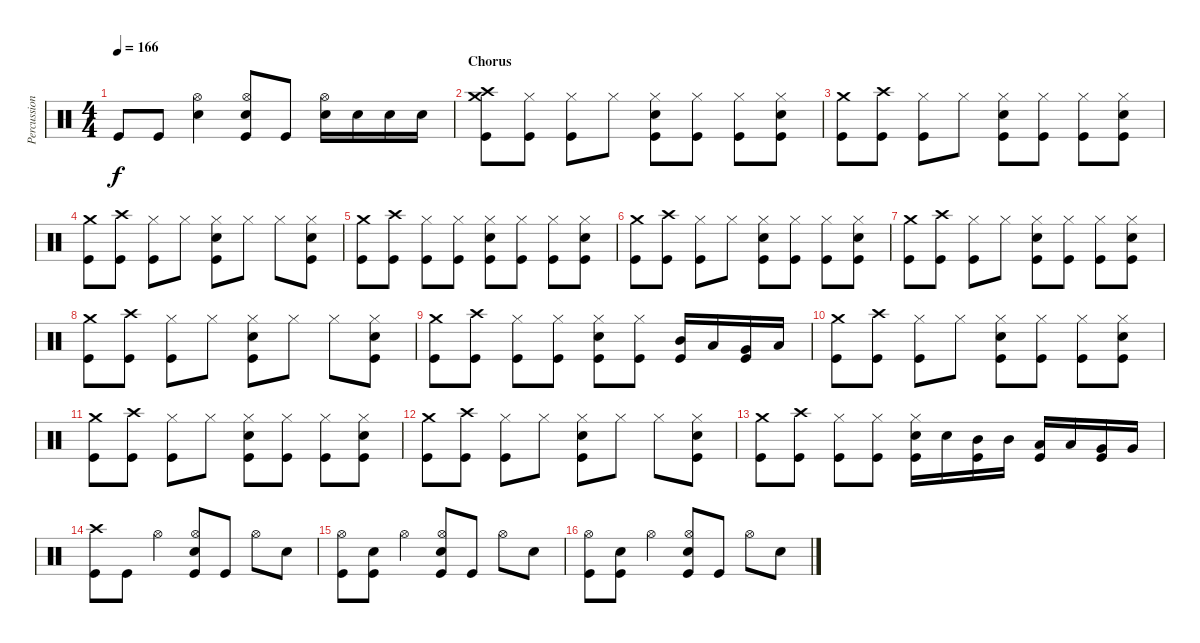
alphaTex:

\track ("Percussion" "Percussion") {instrument percussion}
\staff {score}
\articulation defaults
\ts (4 4)
\tempo 166
\clef neutral
\ks c "Kick (hit)".8{dy f} "Kick (hit)".8
("Hi-Hat (open)" "Electric Snare (hit)").4 ("Hi-Hat (open)" "Electric Snare (hit)" "Kick (hit)").8 "Kick (hit)".8 ("Hi-Hat (open)" "Electric Snare (hit)").16 "Electric Snare (hit)".16 "Electric Snare (hit)".16 "Electric Snare (hit)".16 |
\section ("" "Chorus")
("Crash high (hit)" "Crash medium (hit)" "Kick (hit)").8 ("Hi-Hat (closed)" "Kick (hit)").8 ("Hi-Hat (closed)" "Kick (hit)").8 "Hi-Hat (closed)".8 ("Hi-Hat (closed)" "Electric Snare (hit)" "Kick (hit)").8 ("Hi-Hat (closed)" "Kick (hit)").8 ("Hi-Hat (closed)" "Kick (hit)").8 ("Hi-Hat (closed)" "Electric Snare (hit)" "Kick (hit)").8 |
("Crash medium (hit)" "Kick (hit)").8 ("Crash high (hit)" "Kick (hit)").8 ("Hi-Hat (closed)" "Kick (hit)").8 "Hi-Hat (closed)".8 ("Hi-Hat (closed)" "Electric Snare (hit)" "Kick (hit)").8 ("Hi-Hat (closed)" "Kick (hit)").8 ("Hi-Hat (closed)" "Kick (hit)").8 ("Hi-Hat (closed)" "Electric Snare (hit)" "Kick (hit)").8 |
("Crash medium (hit)" "Kick (hit)").8 ("Crash high (hit)" "Kick (hit)").8 ("Hi-Hat (closed)" "Kick (hit)").8 "Hi-Hat (closed)".8 ("Hi-Hat (closed)" "Electric Snare (hit)" "Kick (hit)").8 "Hi-Hat (closed)".8 "Hi-Hat (closed)".8 ("Hi-Hat (closed)" "Electric Snare (hit)" "Kick (hit)").8 |
("Crash medium (hit)" "Kick (hit)").8 ("Crash high (hit)" "Kick (hit)").8 ("Hi-Hat (closed)" "Kick (hit)").8 ("Hi-Hat (closed)" "Kick (hit)").8 ("Hi-Hat (closed)" "Electric Snare (hit)" "Kick (hit)").8 ("Hi-Hat (closed)" "Kick (hit)").8 ("Hi-Hat (closed)" "Kick (hit)").8 ("Hi-Hat (closed)" "Electric Snare (hit)" "Kick (hit)").8 |
("Crash medium (hit)" "Kick (hit)").8 ("Crash high (hit)" "Kick (hit)").8 ("Hi-Hat (closed)" "Kick (hit)").8 "Hi-Hat (closed)".8 ("Hi-Hat (closed)" "Electric Snare (hit)" "Kick (hit)").8 ("Hi-Hat (closed)" "Kick (hit)").8 ("Hi-Hat (closed)" "Kick (hit)").8 ("Hi-Hat (closed)" "Electric Snare (hit)" "Kick (hit)").8 |
("Crash medium (hit)" "Kick (hit)").8 ("Crash high (hit)" "Kick (hit)").8 ("Hi-Hat (closed)" "Kick (hit)").8 "Hi-Hat (closed)".8 ("Hi-Hat (closed)" "Electric Snare (hit)" "Kick (hit)").8 ("Hi-Hat (closed)" "Kick (hit)").8 ("Hi-Hat (closed)" "Kick (hit)").8 ("Hi-Hat (closed)" "Electric Snare (hit)" "Kick (hit)").8 |
("Crash medium (hit)" "Kick (hit)").8 ("Crash high (hit)" "Kick (hit)").8 ("Hi-Hat (closed)" "Kick (hit)").8 "Hi-Hat (closed)".8 ("Hi-Hat (closed)" "Electric Snare (hit)" "Kick (hit)").8 "Hi-Hat (closed)".8 "Hi-Hat (closed)".8 ("Hi-Hat (closed)" "Electric Snare (hit)" "Kick (hit)").8 |
("Crash medium (hit)" "Kick (hit)").8 ("Crash high (hit)" "Kick (hit)").8 ("Hi-Hat (closed)" "Kick (hit)").8 ("Hi-Hat (closed)" "Kick (hit)").8 ("Hi-Hat (closed)" "Electric Snare (hit)" "Kick (hit)").8 ("Hi-Hat (closed)" "Kick (hit)").8 ("Mid Tom (hit)" "Kick (hit)").16 "Low Tom (hit)".16 ("Very Low Tom (hit)" "Kick (hit)").16 "Low Floor Tom (hit)".16 |
("Crash medium (hit)" "Kick (hit)").8 ("Crash high (hit)" "Kick (hit)").8 ("Hi-Hat (closed)" "Kick (hit)").8 "Hi-Hat (closed)".8 ("Hi-Hat (closed)" "Electric Snare (hit)" "Kick (hit)").8 ("Hi-Hat (closed)" "Kick (hit)").8 ("Hi-Hat (closed)" "Kick (hit)").8 ("Hi-Hat (closed)" "Electric Snare (hit)" "Kick (hit)").8 |
("Crash medium (hit)" "Kick (hit)").8 ("Crash high (hit)" "Kick (hit)").8 ("Hi-Hat (closed)" "Kick (hit)").8 "Hi-Hat (closed)".8 ("Hi-Hat (closed)" "Electric Snare (hit)" "Kick (hit)").8 ("Hi-Hat (closed)" "Kick (hit)").8 ("Hi-Hat (closed)" "Kick (hit)").8 ("Hi-Hat (closed)" "Electric Snare (hit)" "Kick (hit)").8 |
("Crash medium (hit)" "Kick (hit)").8 ("Crash high (hit)" "Kick (hit)").8 ("Hi-Hat (closed)" "Kick (hit)").8 "Hi-Hat (closed)".8 ("Hi-Hat (closed)" "Electric Snare (hit)" "Kick (hit)").8 "Hi-Hat (closed)".8 "Hi-Hat (closed)".8 ("Hi-Hat (closed)" "Electric Snare (hit)" "Kick (hit)").8 |
("Crash medium (hit)" "Kick (hit)").8 ("Crash high (hit)" "Kick (hit)").8 ("Hi-Hat (closed)" "Kick (hit)").8 ("Hi-Hat (closed)" "Kick (hit)").8 ("Hi-Hat (closed)" "Electric Snare (hit)" "Kick (hit)").16 "Electric Snare (hit)".16 ("Mid Tom (hit)" "Kick (hit)").16 "Mid Tom (hit)".16 ("Low Tom (hit)" "Kick (hit)").16 "Low Tom (hit)".16 ("Very Low Tom (hit)" "Kick (hit)").16 "Very Low Tom (hit)".16 |
("Crash high (hit)" "Kick (hit)").8 "Kick (hit)".8 "Hi-Hat (open)".4 ("Hi-Hat (open)" "Electric Snare (hit)" "Kick (hit)").8 "Kick (hit)".8 "Hi-Hat (open)".8 "Electric Snare (hit)".8 |
("Hi-Hat (open)" "Kick (hit)").8 ("Electric Snare (hit)" "Kick (hit)").8 "Hi-Hat (open)".4 ("Hi-Hat (open)" "Electric Snare (hit)" "Kick (hit)").8 "Kick (hit)".8 "Hi-Hat (open)".8 "Electric Snare (hit)".8 |
("Hi-Hat (open)" "Kick (hit)").8 ("Electric Snare (hit)" "Kick (hit)").8 "Hi-Hat (open)".4 ("Hi-Hat (open)" "Electric Snare (hit)" "Kick (hit)").8 "Kick (hit)".8 "Hi-Hat (open)".8 "Electric Snare (hit)".8
